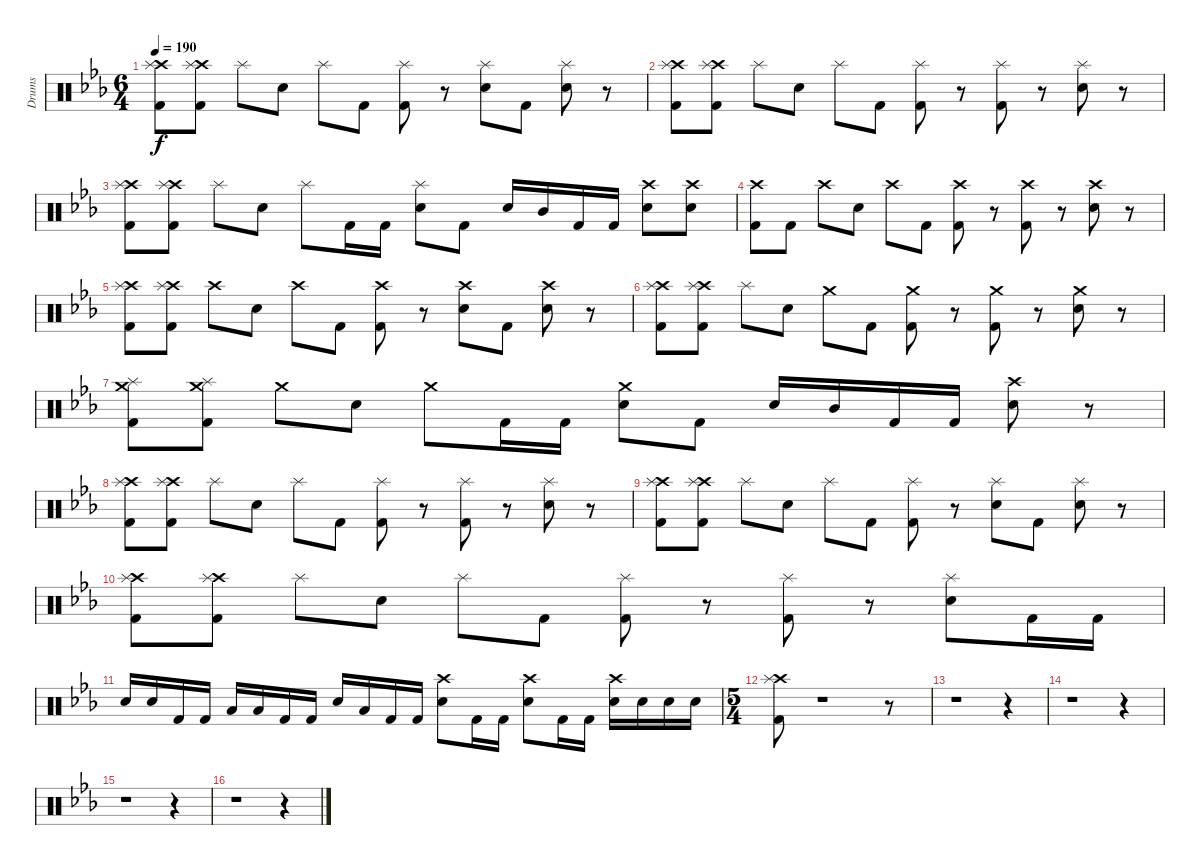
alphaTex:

\track ("Drums" "Drums") {instrument percussion}
\staff {score}
\articulation defaults
\ts (6 4)
\tempo 190
\clef neutral
\ks eb
("Kick (hit) 2" "Crash high (hit)" "Splash (hit)").8{dy f} ("Kick (hit) 2" "Crash high (hit)" "Splash (hit)").8 "Splash (hit)".8 "Electric Snare (hit)".8 "Splash (hit)".8 "Kick (hit) 2".8 ("Kick (hit) 2" "Splash (hit)").8 r.8 ("Electric Snare (hit)" "Splash (hit)").8 "Kick (hit) 2".8 ("Electric Snare (hit)" "Splash (hit)").8 r.8 |
("Kick (hit) 2" "Crash high (hit)" "Splash (hit)").8 ("Kick (hit) 2" "Crash high (hit)" "Splash (hit)").8 "Splash (hit)".8 "Electric Snare (hit)".8 "Splash (hit)".8 "Kick (hit) 2".8 ("Kick (hit) 2" "Splash (hit)").8 r.8 ("Kick (hit) 2" "Splash (hit)").8 r.8 ("Electric Snare (hit)" "Splash (hit)").8 r.8 |
("Kick (hit) 2" "Crash high (hit)" "Splash (hit)").8 ("Kick (hit) 2" "Crash high (hit)" "Splash (hit)").8 "Splash (hit)".8 "Electric Snare (hit)".8 "Splash (hit)".8 "Kick (hit) 2".16 "Kick (hit) 2".16 ("Electric Snare (hit)" "Splash (hit)").8 "Kick (hit) 2".8 "Electric Snare (hit)".16 "Mid Tom (hit)".16 "Kick (hit) 2".16 "Kick (hit) 2".16 ("Electric Snare (hit)" "Crash high (hit)").8 ("Electric Snare (hit)" "Crash high (hit)").8 |
("Kick (hit) 2" "Crash high (hit)").8 "Kick (hit) 2".8 "Crash high (hit)".8 "Electric Snare (hit)".8 "Crash high (hit)".8 "Kick (hit) 2".8 ("Kick (hit) 2" "Crash high (hit)").8 r.8 ("Kick (hit) 2" "Crash high (hit)").8 r.8 ("Electric Snare (hit)" "Crash high (hit)").8 r.8 |
("Kick (hit) 2" "Crash high (hit)" "Splash (hit)").8 ("Kick (hit) 2" "Crash high (hit)" "Splash (hit)").8 "Crash high (hit)".8 "Electric Snare (hit)".8 "Crash high (hit)".8 "Kick (hit) 2".8 ("Kick (hit) 2" "Crash high (hit)").8 r.8 ("Electric Snare (hit)" "Crash high (hit)").8 "Kick (hit) 2".8 ("Electric Snare (hit)" "Crash high (hit)").8 r.8 |
("Kick (hit) 2" "Crash high (hit)" "Splash (hit)").8 ("Kick (hit) 2" "Crash high (hit)" "Splash (hit)").8 "Splash (hit)".8 "Electric Snare (hit)".8 "Crash medium (hit)".8 "Kick (hit) 2".8 ("Kick (hit) 2" "Crash medium (hit)").8 r.8 ("Kick (hit) 2" "Crash medium (hit)").8 r.8 ("Electric Snare (hit)" "Crash medium (hit)").8 r.8 |
("Kick (hit) 2" "Splash (hit)" "Crash medium (hit)").8 ("Kick (hit) 2" "Splash (hit)" "Crash medium (hit)").8 "Crash medium (hit)".8 "Electric Snare (hit)".8 "Crash medium (hit)".8 "Kick (hit) 2".16 "Kick (hit) 2".16 ("Electric Snare (hit)" "Crash medium (hit)").8 "Kick (hit) 2".8 "Electric Snare (hit)".16 "Mid Tom (hit)".16 "Kick (hit) 2".16 "Kick (hit) 2".16 ("Electric Snare (hit)" "Crash high (hit)").8 r.8 |
("Kick (hit) 2" "Crash high (hit)" "Splash (hit)").8 ("Kick (hit) 2" "Crash high (hit)" "Splash (hit)").8 "Splash (hit)".8 "Electric Snare (hit)".8 "Splash (hit)".8 "Kick (hit) 2".8 ("Kick (hit) 2" "Splash (hit)").8 r.8 ("Kick (hit) 2" "Splash (hit)").8 r.8 ("Electric Snare (hit)" "Splash (hit)").8 r.8 |
("Kick (hit) 2" "Crash high (hit)" "Splash (hit)").8 ("Kick (hit) 2" "Crash high (hit)" "Splash (hit)").8 "Splash (hit)".8 "Electric Snare (hit)".8 "Splash (hit)".8 "Kick (hit) 2".8 ("Kick (hit) 2" "Splash (hit)").8 r.8 ("Electric Snare (hit)" "Splash (hit)").8 "Kick (hit) 2".8 ("Electric Snare (hit)" "Splash (hit)").8 r.8 |
("Kick (hit) 2" "Crash high (hit)" "Splash (hit)").8 ("Kick (hit) 2" "Crash high (hit)" "Splash (hit)").8 "Splash (hit)".8 "Electric Snare (hit)".8 "Splash (hit)".8 "Kick (hit) 2".8 ("Kick (hit) 2" "Splash (hit)").8 r.8 ("Kick (hit) 2" "Splash (hit)").8 r.8 ("Electric Snare (hit)" "Splash (hit)").8 "Kick (hit) 2".16 "Kick (hit) 2".16 |
"Electric Snare (hit)".16 "Electric Snare (hit)".16 "Kick (hit) 2".16 "Kick (hit) 2".16 "Low Tom (hit)".16 "Low Tom (hit)".16 "Kick (hit) 2".16 "Kick (hit) 2".16 "Electric Snare (hit)".16 "Low Tom (hit)".16 "Kick (hit) 2".16 "Kick (hit) 2".16 ("Electric Snare (hit)" "Crash high (hit)").8 "Kick (hit) 2".16 "Kick (hit) 2".16 ("Electric Snare (hit)" "Crash high (hit)").8 "Kick (hit) 2".16 "Kick (hit) 2".16 ("Electric Snare (hit)" "Crash high (hit)").16 "Electric Snare (hit)".16 "Electric Snare (hit)".16 "Electric Snare (hit)".16 |
\ts (5 4)
("Kick (hit) 2" "Crash high (hit)" "Splash (hit)").8 r.1 r.8 |
r.1 r.4 |
r.1 r.4 |
r.1 r.4 |
r.1 r.4
